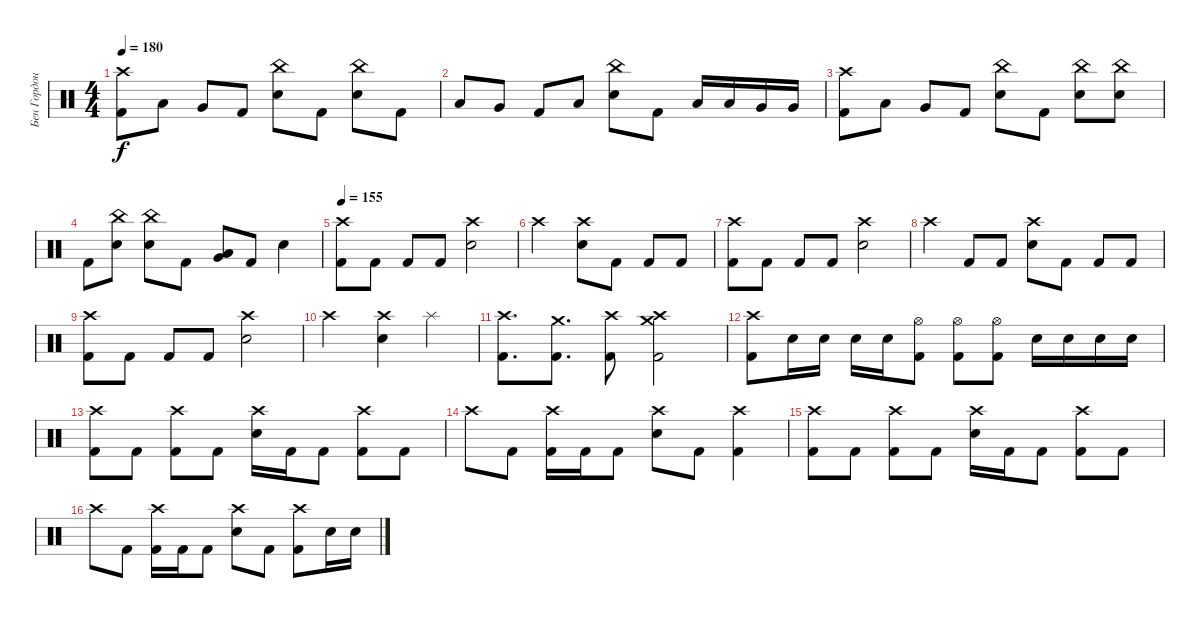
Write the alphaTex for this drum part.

\track ("Бен Гордон" "Бен Гордон") {instrument percussion}
\staff {score}
\articulation defaults
\ts (4 4)
\tempo 180
\clef neutral
\ks c
("Crash high (hit)" "Kick (hit) 2").8{dy f} "Low Tom (hit)".8 "Very Low Tom (hit)".8 "Kick (hit) 2".8 ("China (hit)" "Electric Snare (hit)").8 "Kick (hit) 2".8 ("China (hit)" "Electric Snare (hit)").8 "Kick (hit) 2".8 |
"Low Tom (hit)".8 "Very Low Tom (hit)".8 "Kick (hit) 2".8 "Low Floor Tom (hit)".8 ("China (hit)" "Electric Snare (hit)").8 "Kick (hit) 2".8 "Low Tom (hit)".16 "Low Tom (hit)".16 "Very Low Tom (hit)".16 "Very Low Tom (hit)".16 |
("Crash high (hit)" "Kick (hit) 2").8 "Low Tom (hit)".8 "Very Low Tom (hit)".8 "Kick (hit) 2".8 ("China (hit)" "Electric Snare (hit)").8 "Kick (hit) 2".8 ("China (hit)" "Electric Snare (hit)").8 ("China (hit)" "Electric Snare (hit)").8 |
"Kick (hit) 2".8 ("China (hit)" "Electric Snare (hit)").8 ("China (hit)" "Electric Snare (hit)").8 "Kick (hit) 2".8 ("Low Tom (hit)" "Very Low Tom (hit)").8 "Kick (hit) 2".8 "Electric Snare (hit)".4 |
\tempo 155
("Crash high (hit)" "Kick (hit) 2").8 "Kick (hit) 2".8 "Kick (hit) 2".8 "Kick (hit) 2".8 ("Crash high (hit)" "Electric Snare (hit)").2 |
"Crash high (hit)".2 ("Crash high (hit)" "Electric Snare (hit)").8 "Kick (hit) 2".8 "Kick (hit) 2".8 "Kick (hit) 2".8 |
("Crash high (hit)" "Kick (hit) 2").8 "Kick (hit) 2".8 "Kick (hit) 2".8 "Kick (hit) 2".8 ("Crash high (hit)" "Electric Snare (hit)").2 |
"Crash high (hit)".4 "Kick (hit) 2".8 "Kick (hit) 2".8 ("Crash high (hit)" "Electric Snare (hit)").8 "Kick (hit) 2".8 "Kick (hit) 2".8 "Kick (hit) 2".8 |
("Crash high (hit)" "Kick (hit) 2").8 "Kick (hit) 2".8 "Kick (hit) 2".8 "Kick (hit) 2".8 ("Crash high (hit)" "Electric Snare (hit)").2 |
"Crash high (hit)".2 ("Crash high (hit)" "Electric Snare (hit)").4 "Splash (hit)".4 |
("Crash high (hit)" "Kick (hit) 2").8{d} ("Crash medium (hit)" "Kick (hit) 2").8{d} ("Crash high (hit)" "Kick (hit) 2").8 ("Crash medium (hit)" "Crash high (hit)" "Kick (hit) 2").2 |
("Crash high (hit)" "Kick (hit) 2").8 "Electric Snare (hit)".16 "Electric Snare (hit)".16 "Electric Snare (hit)".16 "Electric Snare (hit)".16 ("Hi-Hat (open)" "Kick (hit) 2").8 ("Hi-Hat (open)" "Kick (hit) 2").8 ("Hi-Hat (open)" "Kick (hit) 2").8 "Electric Snare (hit)".16 "Electric Snare (hit)".16 "Electric Snare (hit)".16 "Electric Snare (hit)".16 |
("Crash high (hit)" "Kick (hit) 2").8 "Kick (hit) 2".8 ("Crash high (hit)" "Kick (hit) 2").8 "Kick (hit) 2".8 ("Crash high (hit)" "Electric Snare (hit)").16 "Kick (hit) 2".16 "Kick (hit) 2".8 ("Crash high (hit)" "Kick (hit) 2").8 "Kick (hit) 2".8 |
"Crash high (hit)".8 "Kick (hit) 2".8 ("Crash high (hit)" "Kick (hit) 2").16 "Kick (hit) 2".16 "Kick (hit) 2".8 ("Crash high (hit)" "Electric Snare (hit)").8 "Kick (hit) 2".8 ("Crash high (hit)" "Kick (hit) 2").4 |
("Crash high (hit)" "Kick (hit) 2").8 "Kick (hit) 2".8 ("Crash high (hit)" "Kick (hit) 2").8 "Kick (hit) 2".8 ("Crash high (hit)" "Electric Snare (hit)").16 "Kick (hit) 2".16 "Kick (hit) 2".8 ("Crash high (hit)" "Kick (hit) 2").8 "Kick (hit) 2".8 |
"Crash high (hit)".8 "Kick (hit) 2".8 ("Crash high (hit)" "Kick (hit) 2").16 "Kick (hit) 2".16 "Kick (hit) 2".8 ("Crash high (hit)" "Electric Snare (hit)").8 "Kick (hit) 2".8 ("Crash high (hit)" "Kick (hit) 2").8 "Electric Snare (hit)".16 "Electric Snare (hit)".16
